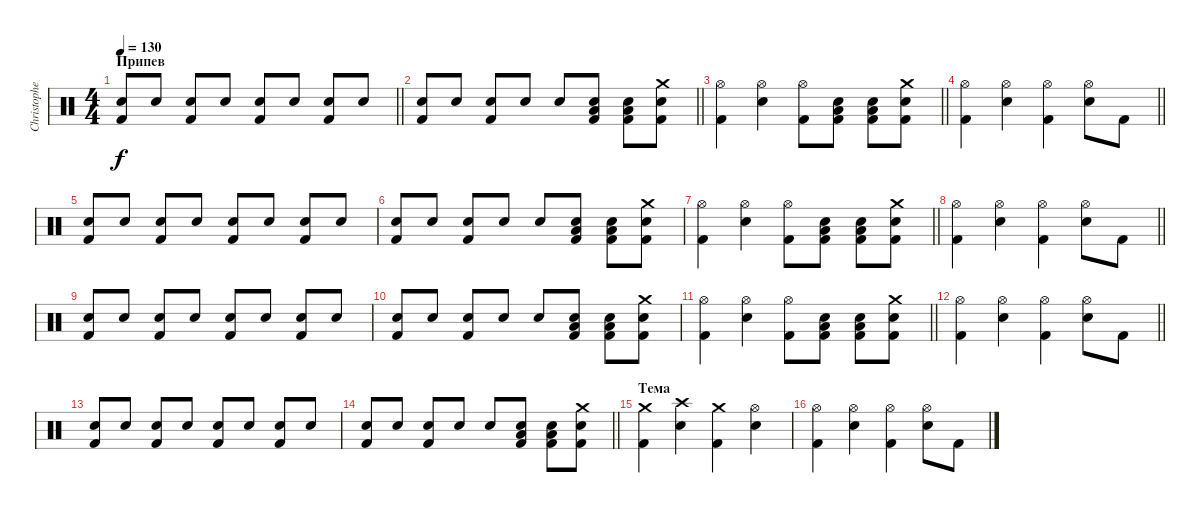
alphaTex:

\track ("Christopher Schneider" "Christophe") {instrument percussion}
\staff {score}
\articulation defaults
\ts (4 4)
\section ("" "Припев")
\tempo 130
\clef neutral
\barLineRight lightlight
\ks c
("Kick (hit) 2" "Electric Snare (hit)").8{dy f} "Electric Snare (hit)".8 ("Kick (hit) 2" "Electric Snare (hit)").8 "Electric Snare (hit)".8 ("Kick (hit) 2" "Electric Snare (hit)").8 "Electric Snare (hit)".8 ("Kick (hit) 2" "Electric Snare (hit)").8 "Electric Snare (hit)".8 |
\barLineRight lightlight
("Kick (hit) 2" "Electric Snare (hit)").8 "Electric Snare (hit)".8 ("Kick (hit) 2" "Electric Snare (hit)").8 "Electric Snare (hit)".8 "Electric Snare (hit)".8 ("Low Tom (hit)" "Electric Snare (hit)" "Kick (hit) 2").8 ("Low Tom (hit)" "Electric Snare (hit)" "Kick (hit) 2").8 ("Crash medium (hit)" "Electric Snare (hit)" "Kick (hit) 2").8 |
\barLineRight lightlight
("Hi-Hat (open)" "Kick (hit) 2").4 ("Hi-Hat (open)" "Electric Snare (hit)").4 ("Hi-Hat (open)" "Kick (hit) 2").8 ("Low Tom (hit)" "Electric Snare (hit)" "Kick (hit) 2").8 ("Low Tom (hit)" "Electric Snare (hit)" "Kick (hit) 2").8 ("Crash medium (hit)" "Electric Snare (hit)" "Kick (hit) 2").8 |
\barLineRight lightlight
("Hi-Hat (open)" "Kick (hit) 2").4 ("Hi-Hat (open)" "Electric Snare (hit)").4 ("Hi-Hat (open)" "Kick (hit) 2").4 ("Hi-Hat (open)" "Electric Snare (hit)").8 "Kick (hit) 2".8 |
("Kick (hit) 2" "Electric Snare (hit)").8 "Electric Snare (hit)".8 ("Kick (hit) 2" "Electric Snare (hit)").8 "Electric Snare (hit)".8 ("Kick (hit) 2" "Electric Snare (hit)").8 "Electric Snare (hit)".8 ("Kick (hit) 2" "Electric Snare (hit)").8 "Electric Snare (hit)".8 |
("Kick (hit) 2" "Electric Snare (hit)").8 "Electric Snare (hit)".8 ("Kick (hit) 2" "Electric Snare (hit)").8 "Electric Snare (hit)".8 "Electric Snare (hit)".8 ("Low Tom (hit)" "Electric Snare (hit)" "Kick (hit) 2").8 ("Low Tom (hit)" "Electric Snare (hit)" "Kick (hit) 2").8 ("Crash medium (hit)" "Electric Snare (hit)" "Kick (hit) 2").8 |
\barLineRight lightlight
("Hi-Hat (open)" "Kick (hit) 2").4 ("Hi-Hat (open)" "Electric Snare (hit)").4 ("Hi-Hat (open)" "Kick (hit) 2").8 ("Low Tom (hit)" "Electric Snare (hit)" "Kick (hit) 2").8 ("Low Tom (hit)" "Electric Snare (hit)" "Kick (hit) 2").8 ("Crash medium (hit)" "Electric Snare (hit)" "Kick (hit) 2").8 |
\barLineRight lightlight
("Hi-Hat (open)" "Kick (hit) 2").4 ("Hi-Hat (open)" "Electric Snare (hit)").4 ("Hi-Hat (open)" "Kick (hit) 2").4 ("Hi-Hat (open)" "Electric Snare (hit)").8 "Kick (hit) 2".8 |
("Kick (hit) 2" "Electric Snare (hit)").8 "Electric Snare (hit)".8 ("Kick (hit) 2" "Electric Snare (hit)").8 "Electric Snare (hit)".8 ("Kick (hit) 2" "Electric Snare (hit)").8 "Electric Snare (hit)".8 ("Kick (hit) 2" "Electric Snare (hit)").8 "Electric Snare (hit)".8 |
("Kick (hit) 2" "Electric Snare (hit)").8 "Electric Snare (hit)".8 ("Kick (hit) 2" "Electric Snare (hit)").8 "Electric Snare (hit)".8 "Electric Snare (hit)".8 ("Low Tom (hit)" "Electric Snare (hit)" "Kick (hit) 2").8 ("Low Tom (hit)" "Electric Snare (hit)" "Kick (hit) 2").8 ("Crash medium (hit)" "Electric Snare (hit)" "Kick (hit) 2").8 |
\barLineRight lightlight
("Hi-Hat (open)" "Kick (hit) 2").4 ("Hi-Hat (open)" "Electric Snare (hit)").4 ("Hi-Hat (open)" "Kick (hit) 2").8 ("Low Tom (hit)" "Electric Snare (hit)" "Kick (hit) 2").8 ("Low Tom (hit)" "Electric Snare (hit)" "Kick (hit) 2").8 ("Crash medium (hit)" "Electric Snare (hit)" "Kick (hit) 2").8 |
\barLineRight lightlight
("Hi-Hat (open)" "Kick (hit) 2").4 ("Hi-Hat (open)" "Electric Snare (hit)").4 ("Hi-Hat (open)" "Kick (hit) 2").4 ("Hi-Hat (open)" "Electric Snare (hit)").8 "Kick (hit) 2".8 |
("Kick (hit) 2" "Electric Snare (hit)").8 "Electric Snare (hit)".8 ("Kick (hit) 2" "Electric Snare (hit)").8 "Electric Snare (hit)".8 ("Kick (hit) 2" "Electric Snare (hit)").8 "Electric Snare (hit)".8 ("Kick (hit) 2" "Electric Snare (hit)").8 "Electric Snare (hit)".8 |
\barLineRight lightlight
("Kick (hit) 2" "Electric Snare (hit)").8 "Electric Snare (hit)".8 ("Kick (hit) 2" "Electric Snare (hit)").8 "Electric Snare (hit)".8 "Electric Snare (hit)".8 ("Low Tom (hit)" "Electric Snare (hit)" "Kick (hit) 2").8 ("Low Tom (hit)" "Electric Snare (hit)" "Kick (hit) 2").8 ("Crash medium (hit)" "Electric Snare (hit)" "Kick (hit) 2").8 |
\section ("" "Тема")
("Crash medium (hit)" "Kick (hit) 2").4 ("Crash high (hit)" "Electric Snare (hit)").4 ("Crash medium (hit)" "Kick (hit) 2").4 ("Hi-Hat (open)" "Electric Snare (hit)").4 |
("Hi-Hat (open)" "Kick (hit) 2").4 ("Hi-Hat (open)" "Electric Snare (hit)").4 ("Hi-Hat (open)" "Kick (hit) 2").4 ("Hi-Hat (open)" "Electric Snare (hit)").8 "Kick (hit) 2".8
